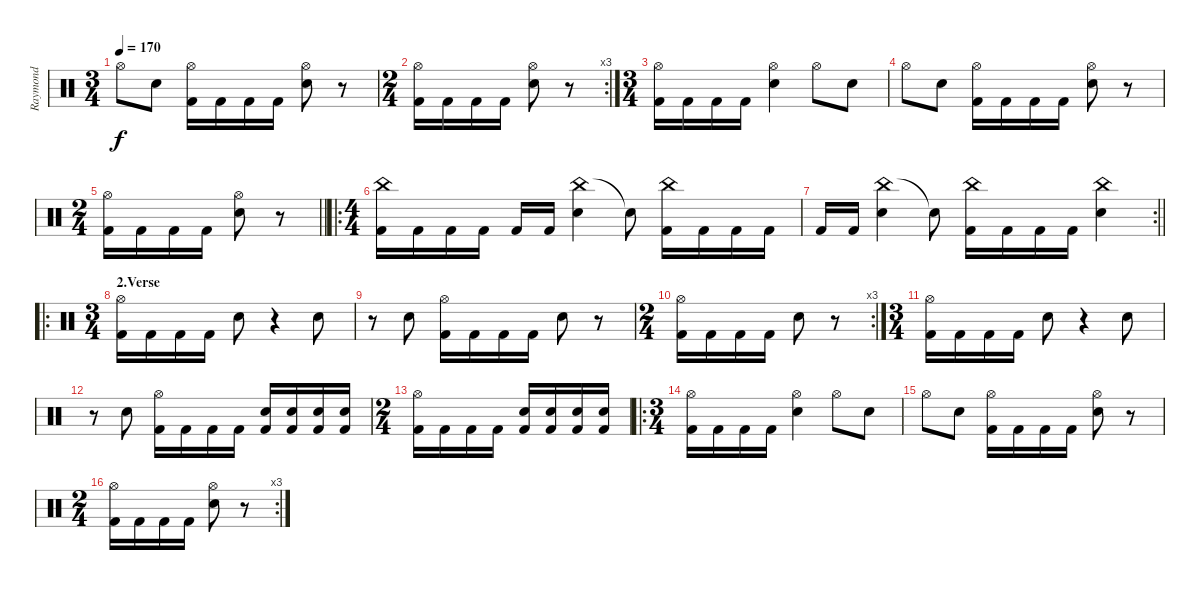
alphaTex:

\track ("Raymond" "Raymond") {instrument percussion}
\staff {score}
\articulation defaults
\ts (3 4)
\tempo 170
\clef neutral
\ks c "Hi-Hat (open)".8{dy f} "Electric Snare (hit)".8
("Hi-Hat (open)" "Kick (hit) 2").16 "Kick (hit) 2".16 "Kick (hit) 2".16 "Kick (hit) 2".16 ("Hi-Hat (open)" "Electric Snare (hit)").8 r.8 |
\rc 3
\ts (2 4)
("Hi-Hat (open)" "Kick (hit) 2").16 "Kick (hit) 2".16 "Kick (hit) 2".16 "Kick (hit) 2".16 ("Hi-Hat (open)" "Electric Snare (hit)").8 r.8 |
\ts (3 4)
("Hi-Hat (open)" "Kick (hit) 2").16 "Kick (hit) 2".16 "Kick (hit) 2".16 "Kick (hit) 2".16 ("Hi-Hat (open)" "Electric Snare (hit)").4 "Hi-Hat (open)".8 "Electric Snare (hit)".8 |
"Hi-Hat (open)".8 "Electric Snare (hit)".8 ("Hi-Hat (open)" "Kick (hit) 2").16 "Kick (hit) 2".16 "Kick (hit) 2".16 "Kick (hit) 2".16 ("Hi-Hat (open)" "Electric Snare (hit)").8 r.8 |
\ts (2 4)
\barLineRight lightlight
("Hi-Hat (open)" "Kick (hit) 2").16 "Kick (hit) 2".16 "Kick (hit) 2".16 "Kick (hit) 2".16 ("Hi-Hat (open)" "Electric Snare (hit)").8 r.8 |
\ro
\ts (4 4)
\section ("" "")
("China (hit)" "Kick (hit) 2").16 "Kick (hit) 2".16 "Kick (hit) 2".16 "Kick (hit) 2".16 "Kick (hit) 2".16 "Kick (hit) 2".16 ("China (hit)" "Electric Snare (hit)").4 "Snare (hit)"{t}.8 ("China (hit)" "Kick (hit) 2").16 "Kick (hit) 2".16 "Kick (hit) 2".16 "Kick (hit) 2".16 |
\rc 2
\barLineRight lightlight "Kick (hit) 2".16 "Kick (hit) 2".16
("China (hit)" "Electric Snare (hit)").4 "Snare (hit)"{t}.8 ("China (hit)" "Kick (hit) 2").16 "Kick (hit) 2".16 "Kick (hit) 2".16 "Kick (hit) 2".16 ("China (hit)" "Electric Snare (hit)").4 |
\ro
\ts (3 4)
\section ("" "2.Verse")
("Hi-Hat (open)" "Kick (hit) 2").16 "Kick (hit) 2".16 "Kick (hit) 2".16 "Kick (hit) 2".16 "Electric Snare (hit)".8 r.4 "Electric Snare (hit)".8 |
r.8 "Electric Snare (hit)".8 ("Hi-Hat (open)" "Kick (hit) 2").16 "Kick (hit) 2".16 "Kick (hit) 2".16 "Kick (hit) 2".16 "Electric Snare (hit)".8 r.8 |
\rc 3
\ts (2 4)
("Hi-Hat (open)" "Kick (hit) 2").16 "Kick (hit) 2".16 "Kick (hit) 2".16 "Kick (hit) 2".16 "Electric Snare (hit)".8 r.8 |
\ts (3 4)
("Hi-Hat (open)" "Kick (hit) 2").16 "Kick (hit) 2".16 "Kick (hit) 2".16 "Kick (hit) 2".16 "Electric Snare (hit)".8 r.4 "Electric Snare (hit)".8 |
r.8 "Electric Snare (hit)".8 ("Hi-Hat (open)" "Kick (hit) 2").16 "Kick (hit) 2".16 "Kick (hit) 2".16 "Kick (hit) 2".16 ("Electric Snare (hit)" "Kick (hit) 2").16 ("Electric Snare (hit)" "Kick (hit) 2").16 ("Electric Snare (hit)" "Kick (hit) 2").16 ("Electric Snare (hit)" "Kick (hit) 2").16 |
\ts (2 4)
("Hi-Hat (open)" "Kick (hit) 2").16 "Kick (hit) 2".16 "Kick (hit) 2".16 "Kick (hit) 2".16 ("Electric Snare (hit)" "Kick (hit) 2").16 ("Electric Snare (hit)" "Kick (hit) 2").16 ("Electric Snare (hit)" "Kick (hit) 2").16 ("Electric Snare (hit)" "Kick (hit) 2").16 |
\ro
\ts (3 4)
("Hi-Hat (open)" "Kick (hit) 2").16 "Kick (hit) 2".16 "Kick (hit) 2".16 "Kick (hit) 2".16 ("Hi-Hat (open)" "Electric Snare (hit)").4 "Hi-Hat (open)".8 "Electric Snare (hit)".8 |
"Hi-Hat (open)".8 "Electric Snare (hit)".8 ("Hi-Hat (open)" "Kick (hit) 2").16 "Kick (hit) 2".16 "Kick (hit) 2".16 "Kick (hit) 2".16 ("Hi-Hat (open)" "Electric Snare (hit)").8 r.8 |
\rc 3
\ts (2 4)
("Hi-Hat (open)" "Kick (hit) 2").16 "Kick (hit) 2".16 "Kick (hit) 2".16 "Kick (hit) 2".16 ("Hi-Hat (open)" "Electric Snare (hit)").8 r.8
